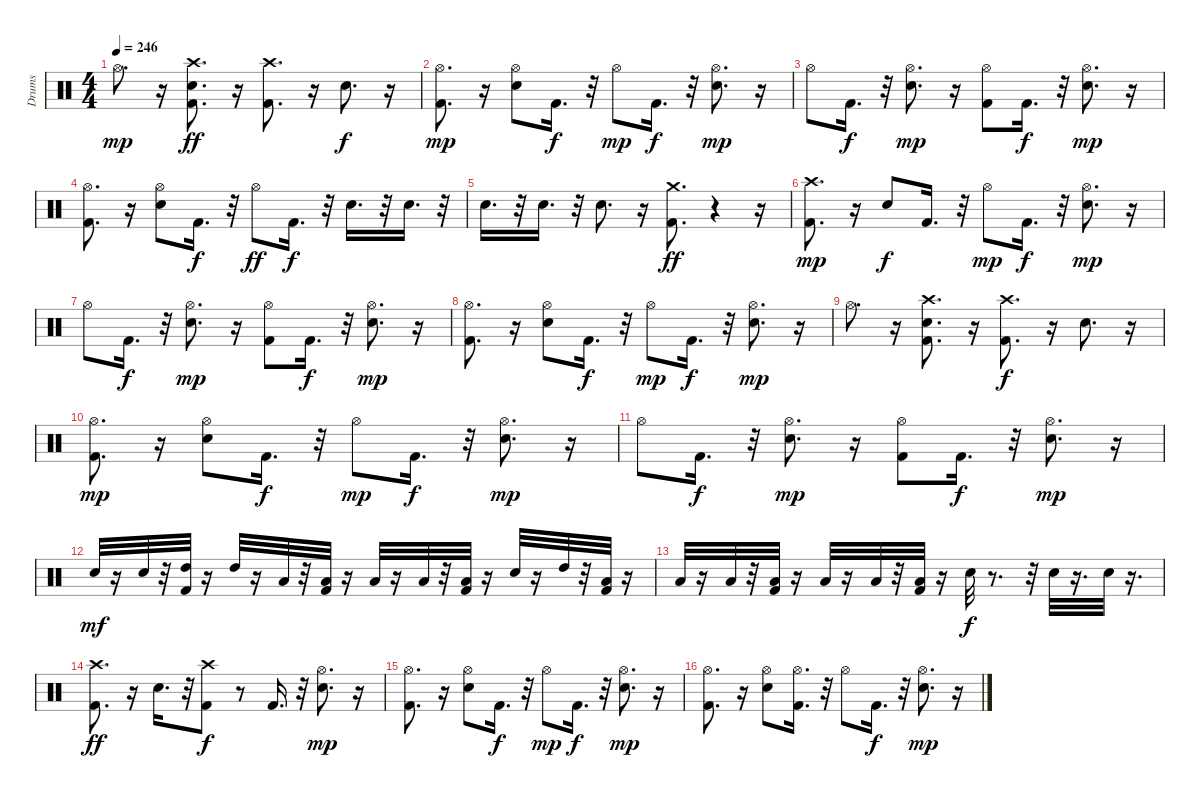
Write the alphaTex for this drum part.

\track ("Drums" "Drums") {instrument percussion}
\staff {score}
\articulation defaults
\ts (4 4)
\tempo 246
\clef neutral
\ks c "Hi-Hat (open)".8{d dy mp}
r.16 ("Kick (hit) 2" "Electric Snare (hit)" "Crash high (hit)").8{d dy ff} r.16 ("Kick (hit) 2" "Crash high (hit)").8{d} r.16 "Electric Snare (hit)".8{d dy f} r.16 |
("Kick (hit) 2" "Hi-Hat (open)").8{d dy mp} r.16 ("Electric Snare (hit)" "Hi-Hat (open)").8 "Kick (hit) 2".16{d dy f} r.32 "Hi-Hat (open)".8{dy mp} "Kick (hit) 2".16{d dy f} r.32 ("Electric Snare (hit)" "Hi-Hat (open)").8{d dy mp} r.16 |
"Hi-Hat (open)".8 "Kick (hit) 2".16{d dy f} r.32 ("Electric Snare (hit)" "Hi-Hat (open)").8{d dy mp} r.16 ("Kick (hit) 2" "Hi-Hat (open)").8 "Kick (hit) 2".16{d dy f} r.32 ("Electric Snare (hit)" "Hi-Hat (open)").8{d dy mp} r.16 |
("Kick (hit) 2" "Hi-Hat (open)").8{d} r.16 ("Electric Snare (hit)" "Hi-Hat (open)").8 "Kick (hit) 2".16{d dy f} r.32 "Hi-Hat (open)".8{dy ff} "Kick (hit) 2".16{d dy f} r.32 "Electric Snare (hit)".16{d} r.32 "Electric Snare (hit)".16{d} r.32 |
"Electric Snare (hit)".16{d} r.32 "Electric Snare (hit)".16{d} r.32 "Electric Snare (hit)".8{d} r.16 ("Kick (hit) 2" "Crash medium (hit)").8{d dy ff} r.4 r.16 |
("Kick (hit) 2" "Crash high (hit)").8{d dy mp} r.16 "Electric Snare (hit)".8{dy f} "Kick (hit) 2".16{d} r.32 "Hi-Hat (open)".8{dy mp} "Kick (hit) 2".16{d dy f} r.32 ("Electric Snare (hit)" "Hi-Hat (open)").8{d dy mp} r.16 |
"Hi-Hat (open)".8 "Kick (hit) 2".16{d dy f} r.32 ("Electric Snare (hit)" "Hi-Hat (open)").8{d dy mp} r.16 ("Kick (hit) 2" "Hi-Hat (open)").8 "Kick (hit) 2".16{d dy f} r.32 ("Electric Snare (hit)" "Hi-Hat (open)").8{d dy mp} r.16 |
("Kick (hit) 2" "Hi-Hat (open)").8{d} r.16 ("Electric Snare (hit)" "Hi-Hat (open)").8 "Kick (hit) 2".16{d dy f} r.32 "Hi-Hat (open)".8{dy mp} "Kick (hit) 2".16{d dy f} r.32 ("Electric Snare (hit)" "Hi-Hat (open)").8{d dy mp} r.16 |
"Hi-Hat (open)".8{d} r.16 ("Crash high (hit)" "Kick (hit) 2" "Electric Snare (hit)").8{d} r.16 ("Crash high (hit)" "Kick (hit) 2").8{d dy f} r.16 "Electric Snare (hit)".8{d} r.16 |
("Kick (hit) 2" "Hi-Hat (open)").8{d dy mp} r.16 ("Electric Snare (hit)" "Hi-Hat (open)").8 "Kick (hit) 2".16{d dy f} r.32 "Hi-Hat (open)".8{dy mp} "Kick (hit) 2".16{d dy f} r.32 ("Electric Snare (hit)" "Hi-Hat (open)").8{d dy mp} r.16 |
"Hi-Hat (open)".8 "Kick (hit) 2".16{d dy f} r.32 ("Electric Snare (hit)" "Hi-Hat (open)").8{d dy mp} r.16 ("Kick (hit) 2" "Hi-Hat (open)").8 "Kick (hit) 2".16{d dy f} r.32 ("Electric Snare (hit)" "Hi-Hat (open)").8{d dy mp} r.16 |
"Electric Snare (hit)".32{dy mf} r.16 "Electric Snare (hit)".32 r.32 ("High Tom (hit)" "Kick (hit) 2").32 r.16 "High Tom (hit)".32 r.16 "Low Tom (hit)".32 r.32 ("Low Tom (hit)" "Kick (hit) 2").32 r.16 "Low Tom (hit)".32 r.16 "Low Tom (hit)".32 r.32 ("Low Tom (hit)" "Kick (hit) 2").32 r.16 "Electric Snare (hit)".32 r.16 "High Tom (hit)".32 r.32 ("Low Tom (hit)" "Kick (hit) 2").32 r.16 |
"Low Tom (hit)".32 r.16 "Low Tom (hit)".32 r.32 ("Low Tom (hit)" "Kick (hit) 2").32 r.16 "Low Tom (hit)".32 r.16 "Low Tom (hit)".32 r.32 ("Low Tom (hit)" "Kick (hit) 2").32 r.16 "Electric Snare (hit)".32{dy f} r.8{d} r.32 "Electric Snare (hit)".32 r.16{d} "Electric Snare (hit)".32 r.16{d} |
("Kick (hit) 2" "Crash high (hit)").8{d dy ff} r.16 "Electric Snare (hit)".16{d} r.32 ("Kick (hit) 2" "Crash high (hit)").8{dy f} r.8 "Kick (hit) 2".16{d} r.32 ("Electric Snare (hit)" "Hi-Hat (open)").8{d dy mp} r.16 |
("Kick (hit) 2" "Hi-Hat (open)").8{d} r.16 ("Electric Snare (hit)" "Hi-Hat (open)").8 "Kick (hit) 2".16{d dy f} r.32 "Hi-Hat (open)".8{dy mp} "Kick (hit) 2".16{d dy f} r.32 ("Electric Snare (hit)" "Hi-Hat (open)").8{d dy mp} r.16 |
("Kick (hit) 2" "Hi-Hat (open)").8{d} r.16 ("Electric Snare (hit)" "Hi-Hat (open)").8 ("Kick (hit) 2" "Hi-Hat (open)").16{d} r.32 "Hi-Hat (open)".8 "Kick (hit) 2".16{d dy f} r.32 ("Electric Snare (hit)" "Hi-Hat (open)").8{d dy mp} r.16
